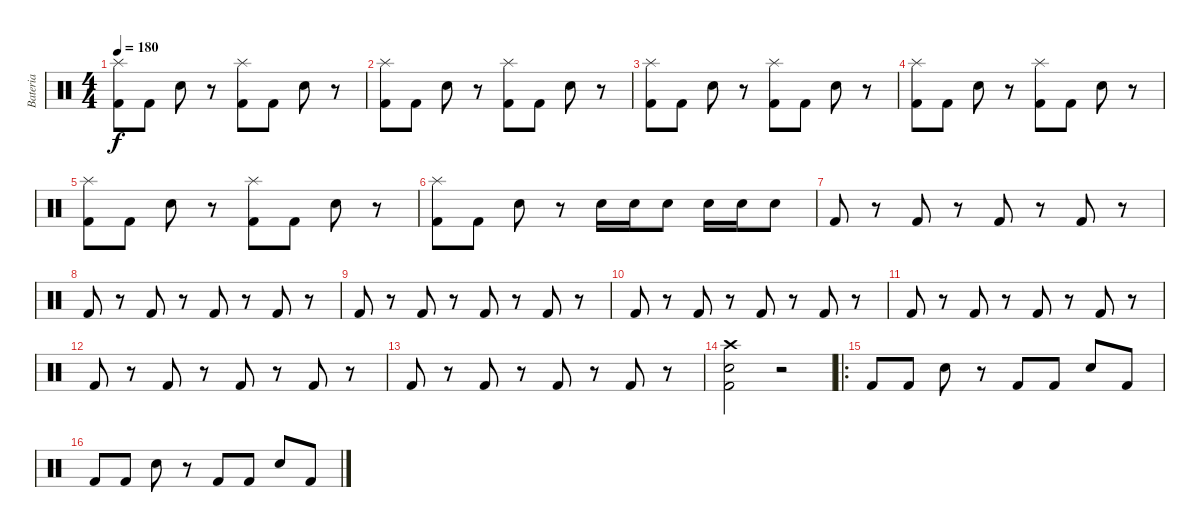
\track ("Bateria" "Bateria") {instrument percussion}
\staff {score}
\articulation defaults
\ts (4 4)
\tempo 180
\clef neutral
\ks c
("Kick (hit) 2" "Splash (hit)").8{dy f} "Kick (hit) 2".8 "Electric Snare (hit)".8 r.8 ("Kick (hit) 2" "Splash (hit)").8 "Kick (hit) 2".8 "Electric Snare (hit)".8 r.8 |
("Kick (hit) 2" "Splash (hit)").8 "Kick (hit) 2".8 "Electric Snare (hit)".8 r.8 ("Kick (hit) 2" "Splash (hit)").8 "Kick (hit) 2".8 "Electric Snare (hit)".8 r.8 |
("Kick (hit) 2" "Splash (hit)").8 "Kick (hit) 2".8 "Electric Snare (hit)".8 r.8 ("Kick (hit) 2" "Splash (hit)").8 "Kick (hit) 2".8 "Electric Snare (hit)".8 r.8 |
("Kick (hit) 2" "Splash (hit)").8 "Kick (hit) 2".8 "Electric Snare (hit)".8 r.8 ("Kick (hit) 2" "Splash (hit)").8 "Kick (hit) 2".8 "Electric Snare (hit)".8 r.8 |
("Kick (hit) 2" "Splash (hit)").8 "Kick (hit) 2".8 "Electric Snare (hit)".8 r.8 ("Kick (hit) 2" "Splash (hit)").8 "Kick (hit) 2".8 "Electric Snare (hit)".8 r.8 |
("Kick (hit) 2" "Splash (hit)").8 "Kick (hit) 2".8 "Electric Snare (hit)".8 r.8 "Electric Snare (hit)".16 "Electric Snare (hit)".16 "Electric Snare (hit)".8 "Electric Snare (hit)".16 "Electric Snare (hit)".16 "Electric Snare (hit)".8 |
"Kick (hit) 2".8 r.8 "Kick (hit) 2".8 r.8 "Kick (hit) 2".8 r.8 "Kick (hit) 2".8 r.8 |
"Kick (hit) 2".8 r.8 "Kick (hit) 2".8 r.8 "Kick (hit) 2".8 r.8 "Kick (hit) 2".8 r.8 |
"Kick (hit) 2".8 r.8 "Kick (hit) 2".8 r.8 "Kick (hit) 2".8 r.8 "Kick (hit) 2".8 r.8 |
"Kick (hit) 2".8 r.8 "Kick (hit) 2".8 r.8 "Kick (hit) 2".8 r.8 "Kick (hit) 2".8 r.8 |
"Kick (hit) 2".8 r.8 "Kick (hit) 2".8 r.8 "Kick (hit) 2".8 r.8 "Kick (hit) 2".8 r.8 |
"Kick (hit) 2".8 r.8 "Kick (hit) 2".8 r.8 "Kick (hit) 2".8 r.8 "Kick (hit) 2".8 r.8 |
"Kick (hit) 2".8 r.8 "Kick (hit) 2".8 r.8 "Kick (hit) 2".8 r.8 "Kick (hit) 2".8 r.8 |
("Kick (hit) 2" "Electric Snare (hit)" "Crash high (hit)").2 r.2 |
\ro "Kick (hit) 2".8 "Kick (hit) 2".8 "Electric Snare (hit)".8
r.8 "Kick (hit) 2".8 "Kick (hit) 2".8 "Electric Snare (hit)".8 "Kick (hit) 2".8 |
"Kick (hit) 2".8 "Kick (hit) 2".8 "Electric Snare (hit)".8 r.8 "Kick (hit) 2".8 "Kick (hit) 2".8 "Electric Snare (hit)".8 "Kick (hit) 2".8
